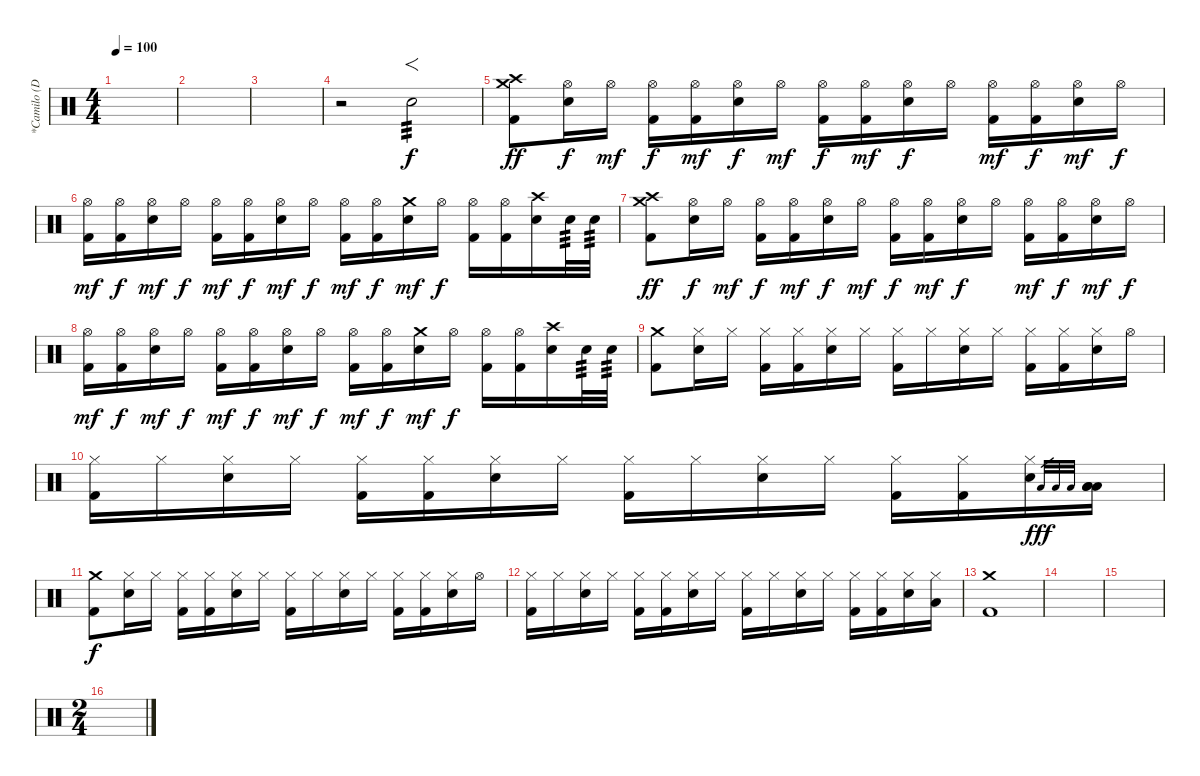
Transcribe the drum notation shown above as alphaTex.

\track ("*Camilo (Drums)" "*Camilo (D") {instrument percussion}
\staff {score}
\articulation defaults
\ts (4 4)
\tempo 100
\clef neutral
\ks c
|
|
|
r.2 "Electric Snare (hit)".2{f tp 3} |
("Crash high (hit)" "Crash medium (hit)" "Kick (hit) 2").8{dy ff} ("Hi-Hat (open)" "Electric Snare (hit)").16{dy f} "Hi-Hat (open)".16{dy mf} ("Hi-Hat (open)" "Kick (hit) 2").16{dy f} ("Hi-Hat (open)" "Kick (hit) 2").16{dy mf} ("Hi-Hat (open)" "Electric Snare (hit)").16{dy f} "Hi-Hat (open)".16{dy mf} ("Hi-Hat (open)" "Kick (hit) 2").16{dy f} ("Hi-Hat (open)" "Kick (hit) 2").16{dy mf} ("Hi-Hat (open)" "Electric Snare (hit)").16{dy f} "Hi-Hat (open)".16 ("Hi-Hat (open)" "Kick (hit) 2").16{dy mf} ("Hi-Hat (open)" "Kick (hit) 2").16{dy f} ("Hi-Hat (open)" "Electric Snare (hit)").16{dy mf} "Hi-Hat (open)".16{dy f} |
("Hi-Hat (open)" "Kick (hit) 2").16{dy mf} ("Hi-Hat (open)" "Kick (hit) 2").16{dy f} ("Hi-Hat (open)" "Electric Snare (hit)").16{dy mf} "Hi-Hat (open)".16{dy f} ("Hi-Hat (open)" "Kick (hit) 2").16{dy mf} ("Hi-Hat (open)" "Kick (hit) 2").16{dy f} ("Hi-Hat (open)" "Electric Snare (hit)").16{dy mf} "Hi-Hat (open)".16{dy f} ("Hi-Hat (open)" "Kick (hit) 2").16{dy mf} ("Hi-Hat (open)" "Kick (hit) 2").16{dy f} ("Crash medium (hit)" "Electric Snare (hit)").16{dy mf} "Hi-Hat (open)".16{dy f} ("Hi-Hat (open)" "Kick (hit) 2").16 ("Hi-Hat (open)" "Kick (hit) 2").16 ("Crash high (hit)" "Electric Snare (hit)").16 "Electric Snare (hit)".32{tp 3} "Electric Snare (hit)".32{tp 3} |
("Crash high (hit)" "Crash medium (hit)" "Kick (hit) 2").8{dy ff} ("Hi-Hat (open)" "Electric Snare (hit)").16{dy f} "Hi-Hat (open)".16{dy mf} ("Hi-Hat (open)" "Kick (hit) 2").16{dy f} ("Hi-Hat (open)" "Kick (hit) 2").16{dy mf} ("Hi-Hat (open)" "Electric Snare (hit)").16{dy f} "Hi-Hat (open)".16{dy mf} ("Hi-Hat (open)" "Kick (hit) 2").16{dy f} ("Hi-Hat (open)" "Kick (hit) 2").16{dy mf} ("Hi-Hat (open)" "Electric Snare (hit)").16{dy f} "Hi-Hat (open)".16 ("Hi-Hat (open)" "Kick (hit) 2").16{dy mf} ("Hi-Hat (open)" "Kick (hit) 2").16{dy f} ("Hi-Hat (open)" "Electric Snare (hit)").16{dy mf} "Hi-Hat (open)".16{dy f} |
("Hi-Hat (open)" "Kick (hit) 2").16{dy mf} ("Hi-Hat (open)" "Kick (hit) 2").16{dy f} ("Hi-Hat (open)" "Electric Snare (hit)").16{dy mf} "Hi-Hat (open)".16{dy f} ("Hi-Hat (open)" "Kick (hit) 2").16{dy mf} ("Hi-Hat (open)" "Kick (hit) 2").16{dy f} ("Hi-Hat (open)" "Electric Snare (hit)").16{dy mf} "Hi-Hat (open)".16{dy f} ("Hi-Hat (open)" "Kick (hit) 2").16{dy mf} ("Hi-Hat (open)" "Kick (hit) 2").16{dy f} ("Crash medium (hit)" "Electric Snare (hit)").16{dy mf} "Hi-Hat (open)".16{dy f} ("Hi-Hat (open)" "Kick (hit) 2").16 ("Hi-Hat (open)" "Kick (hit) 2").16 ("Crash high (hit)" "Electric Snare (hit)").16 "Electric Snare (hit)".32{tp 3} "Electric Snare (hit)".32{tp 3} |
("Crash medium (hit)" "Kick (hit) 2").8 ("Hi-Hat (closed)" "Electric Snare (hit)").16 "Hi-Hat (closed)".16 ("Hi-Hat (closed)" "Kick (hit) 2").16 ("Hi-Hat (closed)" "Kick (hit) 2").16 ("Hi-Hat (closed)" "Electric Snare (hit)").16 "Hi-Hat (closed)".16 ("Hi-Hat (closed)" "Kick (hit) 2").16 "Hi-Hat (closed)".16 ("Hi-Hat (closed)" "Electric Snare (hit)").16 "Hi-Hat (closed)".16 ("Hi-Hat (closed)" "Kick (hit) 2").16 ("Hi-Hat (closed)" "Kick (hit) 2").16 ("Hi-Hat (closed)" "Electric Snare (hit)").16 "Hi-Hat (open)".16 |
("Hi-Hat (closed)" "Kick (hit) 2").16 "Hi-Hat (closed)".16 ("Hi-Hat (closed)" "Electric Snare (hit)").16 "Hi-Hat (closed)".16 ("Hi-Hat (closed)" "Kick (hit) 2").16 ("Hi-Hat (closed)" "Kick (hit) 2").16 ("Hi-Hat (closed)" "Electric Snare (hit)").16 "Hi-Hat (closed)".16 ("Hi-Hat (closed)" "Kick (hit) 2").16 "Hi-Hat (closed)".16 ("Hi-Hat (closed)" "Electric Snare (hit)").16 "Hi-Hat (closed)".16 ("Hi-Hat (closed)" "Kick (hit) 2").16 ("Hi-Hat (closed)" "Kick (hit) 2").16 ("Hi-Hat (closed)" "Electric Snare (hit)").16 "Low Tom (hit)".32{gr dy fff} "Low Tom (hit)".32{gr} "Low Tom (hit)".32{gr} ("Low Tom (hit)" "Low Tom (hit)" "Low Tom (hit)").16 |
("Crash medium (hit)" "Kick (hit) 2").8{dy f} ("Hi-Hat (closed)" "Electric Snare (hit)").16 "Hi-Hat (closed)".16 ("Hi-Hat (closed)" "Kick (hit) 2").16 ("Hi-Hat (closed)" "Kick (hit) 2").16 ("Hi-Hat (closed)" "Electric Snare (hit)").16 "Hi-Hat (closed)".16 ("Hi-Hat (closed)" "Kick (hit) 2").16 "Hi-Hat (closed)".16 ("Hi-Hat (closed)" "Electric Snare (hit)").16 "Hi-Hat (closed)".16 ("Hi-Hat (closed)" "Kick (hit) 2").16 ("Hi-Hat (closed)" "Kick (hit) 2").16 ("Hi-Hat (closed)" "Electric Snare (hit)").16 "Hi-Hat (open)".16 |
("Hi-Hat (closed)" "Kick (hit) 2").16 "Hi-Hat (closed)".16 ("Hi-Hat (closed)" "Electric Snare (hit)").16 "Hi-Hat (closed)".16 ("Hi-Hat (closed)" "Kick (hit) 2").16 ("Hi-Hat (closed)" "Kick (hit) 2").16 ("Hi-Hat (closed)" "Electric Snare (hit)").16 "Hi-Hat (closed)".16 ("Hi-Hat (closed)" "Kick (hit) 2").16 "Hi-Hat (closed)".16 ("Hi-Hat (closed)" "Electric Snare (hit)").16 "Hi-Hat (closed)".16 ("Hi-Hat (closed)" "Kick (hit) 2").16 ("Hi-Hat (closed)" "Kick (hit) 2").16 ("Hi-Hat (closed)" "Electric Snare (hit)").16 ("Hi-Hat (closed)" "Low Tom (hit)").16 |
("Crash medium (hit)" "Kick (hit) 2").1 |
|
|
\ts (2 4)
